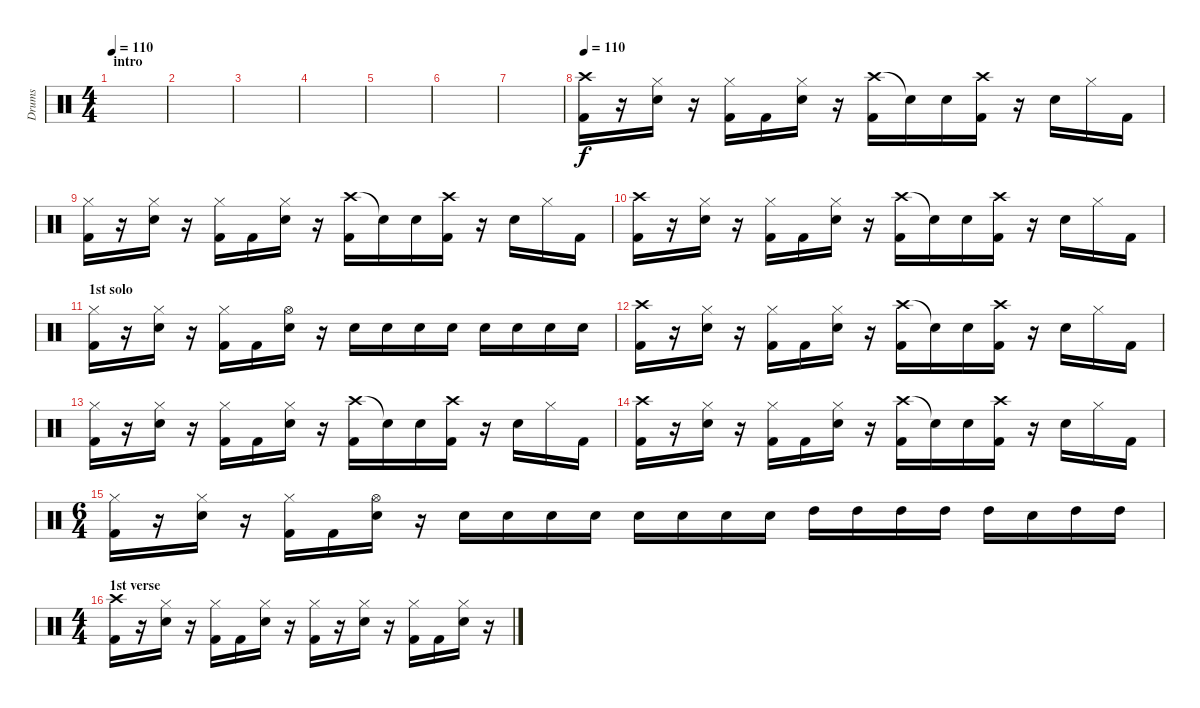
\track ("Drums" "Drums") {instrument percussion}
\staff {score}
\articulation defaults
\ts (4 4)
\section ("" "intro")
\tempo 110
\tempo 40
\tempo 110
\clef neutral
\ks c
|
|
|
|
|
|
|
\tempo 110
("Crash high (hit)" "Kick (hit) 2").16 r.16 ("Hi-Hat (closed)" "Electric Snare (hit)").16 r.16 ("Hi-Hat (closed)" "Kick (hit) 2").16 "Kick (hit) 2".16 ("Hi-Hat (closed)" "Electric Snare (hit)").16 r.16 ("Crash high (hit)" "Kick (hit) 2").16 "Snare (hit)"{t}.16 "Electric Snare (hit)".16 ("Crash high (hit)" "Kick (hit) 2").16 r.16 "Electric Snare (hit)".16 "Hi-Hat (closed)".16 "Kick (hit) 2".16 |
("Hi-Hat (closed)" "Kick (hit) 2").16 r.16 ("Hi-Hat (closed)" "Electric Snare (hit)").16 r.16 ("Hi-Hat (closed)" "Kick (hit) 2").16 "Kick (hit) 2".16 ("Hi-Hat (closed)" "Electric Snare (hit)").16 r.16 ("Crash high (hit)" "Kick (hit) 2").16 "Snare (hit)"{t}.16 "Electric Snare (hit)".16 ("Crash high (hit)" "Kick (hit) 2").16 r.16 "Electric Snare (hit)".16 "Hi-Hat (closed)".16 "Kick (hit) 2".16 |
("Crash high (hit)" "Kick (hit) 2").16 r.16 ("Hi-Hat (closed)" "Electric Snare (hit)").16 r.16 ("Hi-Hat (closed)" "Kick (hit) 2").16 "Kick (hit) 2".16 ("Hi-Hat (closed)" "Electric Snare (hit)").16 r.16 ("Crash high (hit)" "Kick (hit) 2").16 "Snare (hit)"{t}.16 "Electric Snare (hit)".16 ("Crash high (hit)" "Kick (hit) 2").16 r.16 "Electric Snare (hit)".16 "Hi-Hat (closed)".16 "Kick (hit) 2".16 |
\section ("" "1st solo")
("Hi-Hat (closed)" "Kick (hit) 2").16 r.16 ("Hi-Hat (closed)" "Electric Snare (hit)").16 r.16 ("Hi-Hat (closed)" "Kick (hit) 2").16 "Kick (hit) 2".16 ("Hi-Hat (open)" "Electric Snare (hit)").16 r.16 "Electric Snare (hit)".16 "Electric Snare (hit)".16 "Electric Snare (hit)".16 "Electric Snare (hit)".16 "Electric Snare (hit)".16 "Electric Snare (hit)".16 "Electric Snare (hit)".16 "Electric Snare (hit)".16 |
("Crash high (hit)" "Kick (hit) 2").16 r.16 ("Hi-Hat (closed)" "Electric Snare (hit)").16 r.16 ("Hi-Hat (closed)" "Kick (hit) 2").16 "Kick (hit) 2".16 ("Hi-Hat (closed)" "Electric Snare (hit)").16 r.16 ("Crash high (hit)" "Kick (hit) 2").16 "Snare (hit)"{t}.16 "Electric Snare (hit)".16 ("Crash high (hit)" "Kick (hit) 2").16 r.16 "Electric Snare (hit)".16 "Hi-Hat (closed)".16 "Kick (hit) 2".16 |
("Hi-Hat (closed)" "Kick (hit) 2").16 r.16 ("Hi-Hat (closed)" "Electric Snare (hit)").16 r.16 ("Hi-Hat (closed)" "Kick (hit) 2").16 "Kick (hit) 2".16 ("Hi-Hat (closed)" "Electric Snare (hit)").16 r.16 ("Crash high (hit)" "Kick (hit) 2").16 "Snare (hit)"{t}.16 "Electric Snare (hit)".16 ("Crash high (hit)" "Kick (hit) 2").16 r.16 "Electric Snare (hit)".16 "Hi-Hat (closed)".16 "Kick (hit) 2".16 |
("Crash high (hit)" "Kick (hit) 2").16 r.16 ("Hi-Hat (closed)" "Electric Snare (hit)").16 r.16 ("Hi-Hat (closed)" "Kick (hit) 2").16 "Kick (hit) 2".16 ("Hi-Hat (closed)" "Electric Snare (hit)").16 r.16 ("Crash high (hit)" "Kick (hit) 2").16 "Snare (hit)"{t}.16 "Electric Snare (hit)".16 ("Crash high (hit)" "Kick (hit) 2").16 r.16 "Electric Snare (hit)".16 "Hi-Hat (closed)".16 "Kick (hit) 2".16 |
\ts (6 4)
("Hi-Hat (closed)" "Kick (hit) 2").16 r.16 ("Hi-Hat (closed)" "Electric Snare (hit)").16 r.16 ("Hi-Hat (closed)" "Kick (hit) 2").16 "Kick (hit) 2".16 ("Hi-Hat (open)" "Electric Snare (hit)").16 r.16 "Electric Snare (hit)".16 "Electric Snare (hit)".16 "Electric Snare (hit)".16 "Electric Snare (hit)".16 "Electric Snare (hit)".16 "Electric Snare (hit)".16 "Electric Snare (hit)".16 "Electric Snare (hit)".16 "High Tom (hit)".16 "High Tom (hit)".16 "High Tom (hit)".16 "High Tom (hit)".16 "High Tom (hit)".16 "Snare (hit)"{x}.16 "High Tom (hit)".16 "High Tom (hit)".16 |
\ts (4 4)
\section ("" "1st verse")
("Crash high (hit)" "Kick (hit) 2").16 r.16 ("Hi-Hat (closed)" "Electric Snare (hit)").16 r.16 ("Hi-Hat (closed)" "Kick (hit) 2").16 "Kick (hit) 2".16 ("Hi-Hat (closed)" "Electric Snare (hit)").16 r.16 ("Hi-Hat (closed)" "Kick (hit) 2").16 r.16 ("Hi-Hat (closed)" "Electric Snare (hit)").16 r.16 ("Hi-Hat (closed)" "Kick (hit) 2").16 "Kick (hit) 2".16 ("Hi-Hat (closed)" "Electric Snare (hit)").16 r.16
